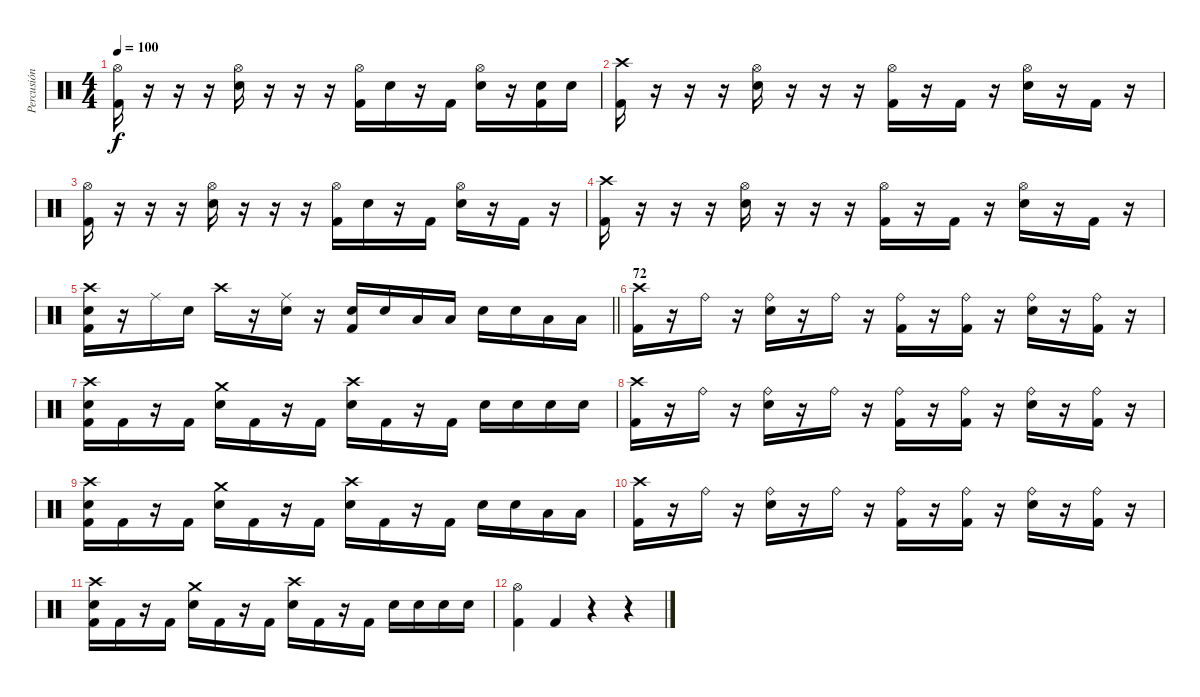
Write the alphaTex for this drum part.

\track ("Percusión" "Percusión") {instrument percussion}
\staff {score}
\articulation defaults
\ts (4 4)
\tempo 100
\clef neutral
\ks c
("Hi-Hat (open)" "Kick (hit) 2").16{dy f} r.16 r.16 r.16 ("Hi-Hat (open)" "Electric Snare (hit)").16 r.16 r.16 r.16 ("Hi-Hat (open)" "Kick (hit) 2").16 "Electric Snare (hit)".16 r.16 "Kick (hit) 2".16 ("Hi-Hat (open)" "Electric Snare (hit)").16 r.16 ("Electric Snare (hit)" "Kick (hit) 2").16 "Electric Snare (hit)".16 |
("Crash high (hit)" "Kick (hit) 2").16 r.16 r.16 r.16 ("Hi-Hat (open)" "Electric Snare (hit)").16 r.16 r.16 r.16 ("Hi-Hat (open)" "Kick (hit) 2").16 r.16 "Kick (hit) 2".16 r.16 ("Hi-Hat (open)" "Electric Snare (hit)").16 r.16 "Kick (hit) 2".16 r.16 |
("Hi-Hat (open)" "Kick (hit) 2").16 r.16 r.16 r.16 ("Hi-Hat (open)" "Electric Snare (hit)").16 r.16 r.16 r.16 ("Hi-Hat (open)" "Kick (hit) 2").16 "Electric Snare (hit)".16 r.16 "Kick (hit) 2".16 ("Hi-Hat (open)" "Electric Snare (hit)").16 r.16 "Kick (hit) 2".16 r.16 |
("Crash high (hit)" "Kick (hit) 2").16 r.16 r.16 r.16 ("Hi-Hat (open)" "Electric Snare (hit)").16 r.16 r.16 r.16 ("Hi-Hat (open)" "Kick (hit) 2").16 r.16 "Kick (hit) 2".16 r.16 ("Hi-Hat (open)" "Electric Snare (hit)").16 r.16 "Kick (hit) 2".16 r.16 |
\barLineRight lightlight
("Crash high (hit)" "Electric Snare (hit)" "Kick (hit) 2").16 r.16 "Ride (middle)".16 "Electric Snare (hit)".16 "Crash high (hit)".16 r.16 ("Ride (middle)" "Electric Snare (hit)").16 r.16 ("Electric Snare (hit)" "Kick (hit) 2").16 "Electric Snare (hit)".16 "Low Tom (hit)".16 "Low Tom (hit)".16 "Electric Snare (hit)".16 "Electric Snare (hit)".16 "Low Tom (hit)".16 "Low Tom (hit)".16 |
\section ("" "72")
("Crash high (hit)" "Kick (hit) 2").16 r.16 "Ride (bell)".16 r.16 ("Ride (bell)" "Electric Snare (hit)").16 r.16 "Ride (bell)".16 r.16 ("Ride (bell)" "Kick (hit) 2").16 r.16 ("Ride (bell)" "Kick (hit) 2").16 r.16 ("Ride (bell)" "Electric Snare (hit)").16 r.16 ("Ride (bell)" "Kick (hit) 2").16 r.16 |
("Crash high (hit)" "Electric Snare (hit)" "Kick (hit) 2").16 "Kick (hit) 2".16 r.16 "Kick (hit) 2".16 ("Crash medium (hit)" "Electric Snare (hit)").16 "Kick (hit) 2".16 r.16 "Kick (hit) 2".16 ("Crash high (hit)" "Electric Snare (hit)").16 "Kick (hit) 2".16 r.16 "Kick (hit) 2".16 "Electric Snare (hit)".16 "Electric Snare (hit)".16 "Electric Snare (hit)".16 "Electric Snare (hit)".16 |
("Crash high (hit)" "Kick (hit) 2").16 r.16 "Ride (bell)".16 r.16 ("Ride (bell)" "Electric Snare (hit)").16 r.16 "Ride (bell)".16 r.16 ("Ride (bell)" "Kick (hit) 2").16 r.16 ("Ride (bell)" "Kick (hit) 2").16 r.16 ("Ride (bell)" "Electric Snare (hit)").16 r.16 ("Ride (bell)" "Kick (hit) 2").16 r.16 |
("Crash high (hit)" "Electric Snare (hit)" "Kick (hit) 2").16 "Kick (hit) 2".16 r.16 "Kick (hit) 2".16 ("Crash medium (hit)" "Electric Snare (hit)").16 "Kick (hit) 2".16 r.16 "Kick (hit) 2".16 ("Crash high (hit)" "Electric Snare (hit)").16 "Kick (hit) 2".16 r.16 "Kick (hit) 2".16 "Electric Snare (hit)".16 "Electric Snare (hit)".16 "Low Tom (hit)".16 "Low Tom (hit)".16 |
("Crash high (hit)" "Kick (hit) 2").16 r.16 "Ride (bell)".16 r.16 ("Ride (bell)" "Electric Snare (hit)").16 r.16 "Ride (bell)".16 r.16 ("Ride (bell)" "Kick (hit) 2").16 r.16 ("Ride (bell)" "Kick (hit) 2").16 r.16 ("Ride (bell)" "Electric Snare (hit)").16 r.16 ("Ride (bell)" "Kick (hit) 2").16 r.16 |
("Crash high (hit)" "Electric Snare (hit)" "Kick (hit) 2").16 "Kick (hit) 2".16 r.16 "Kick (hit) 2".16 ("Crash medium (hit)" "Electric Snare (hit)").16 "Kick (hit) 2".16 r.16 "Kick (hit) 2".16 ("Crash high (hit)" "Electric Snare (hit)").16 "Kick (hit) 2".16 r.16 "Kick (hit) 2".16 "Electric Snare (hit)".16 "Electric Snare (hit)".16 "Electric Snare (hit)".16 "Electric Snare (hit)".16 |
("Hi-Hat (open)" "Kick (hit) 2").4 "Kick (hit) 2".4 r.4 r.4
